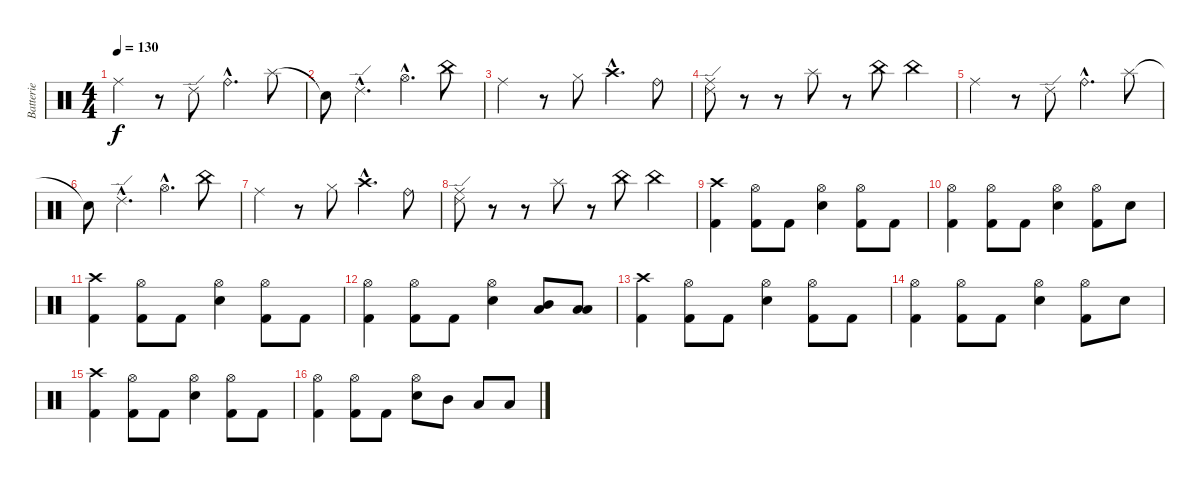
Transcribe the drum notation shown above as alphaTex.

\track ("Batterie" "Batterie") {instrument percussion}
\staff {score}
\articulation defaults
\ts (4 4)
\tempo 130
\clef neutral
\ks c "Ride (middle)".4{dy f}
r.8 "Ride (edge) 2".8 "Ride (bell)"{hac}.4{d} "Splash (hit)".8 |
"Snare (hit)"{t}.8 "Ride (edge) 2"{hac}.4{d} "Hi-Hat (open)"{hac}.4{d} "China (hit)".8 |
"Ride (middle)".4 r.8 "Hi-Hat (closed)".8 "Crash high (hit)"{hac}.4{d} "Ride (bell)".8 |
("Ride (middle)" "Ride (edge) 2").8 r.8 r.8 "Splash (hit)".8 r.8 "China (hit)".8 "China (hit)".4 |
"Ride (middle)".4 r.8 "Ride (edge) 2".8 "Ride (bell)"{hac}.4{d} "Splash (hit)".8 |
"Snare (hit)"{t}.8 "Ride (edge) 2"{hac}.4{d} "Hi-Hat (open)"{hac}.4{d} "China (hit)".8 |
"Ride (middle)".4 r.8 "Hi-Hat (closed)".8 "Crash high (hit)"{hac}.4{d} "Ride (bell)".8 |
("Ride (middle)" "Ride (edge) 2").8 r.8 r.8 "Splash (hit)".8 r.8 "China (hit)".8 "China (hit)".4 |
("Crash high (hit)" "Kick (hit) 2").4{volume 13} ("Hi-Hat (open)" "Kick (hit) 2").8 "Kick (hit) 2".8 ("Hi-Hat (open)" "Electric Snare (hit)").4 ("Hi-Hat (open)" "Kick (hit) 2").8 "Kick (hit) 2".8 |
("Hi-Hat (open)" "Kick (hit) 2").4 ("Hi-Hat (open)" "Kick (hit) 2").8 "Kick (hit) 2".8 ("Hi-Hat (open)" "Electric Snare (hit)").4 ("Hi-Hat (open)" "Kick (hit) 2").8 "Electric Snare (hit)".8 |
("Crash high (hit)" "Kick (hit) 2").4 ("Hi-Hat (open)" "Kick (hit) 2").8 "Kick (hit) 2".8 ("Hi-Hat (open)" "Electric Snare (hit)").4 ("Hi-Hat (open)" "Kick (hit) 2").8 "Kick (hit) 2".8 |
("Hi-Hat (open)" "Kick (hit) 2").4 ("Hi-Hat (open)" "Kick (hit) 2").8 "Kick (hit) 2".8 ("Hi-Hat (open)" "Electric Snare (hit)").4 ("Mid Tom (hit)" "Low Tom (hit)").8 ("Low Tom (hit)" "Low Floor Tom (hit)").8 |
("Crash high (hit)" "Kick (hit) 2").4{volume 13} ("Hi-Hat (open)" "Kick (hit) 2").8 "Kick (hit) 2".8 ("Hi-Hat (open)" "Electric Snare (hit)").4 ("Hi-Hat (open)" "Kick (hit) 2").8 "Kick (hit) 2".8 |
("Hi-Hat (open)" "Kick (hit) 2").4 ("Hi-Hat (open)" "Kick (hit) 2").8 "Kick (hit) 2".8 ("Hi-Hat (open)" "Electric Snare (hit)").4 ("Hi-Hat (open)" "Kick (hit) 2").8 "Electric Snare (hit)".8 |
("Crash high (hit)" "Kick (hit) 2").4 ("Hi-Hat (open)" "Kick (hit) 2").8 "Kick (hit) 2".8 ("Hi-Hat (open)" "Electric Snare (hit)").4 ("Hi-Hat (open)" "Kick (hit) 2").8 "Kick (hit) 2".8 |
("Hi-Hat (open)" "Kick (hit) 2").4 ("Hi-Hat (open)" "Kick (hit) 2").8 "Kick (hit) 2".8 ("Hi-Hat (open)" "Electric Snare (hit)").8 "Mid Tom (hit)".8 "Low Tom (hit)".8 "Low Floor Tom (hit)".8
